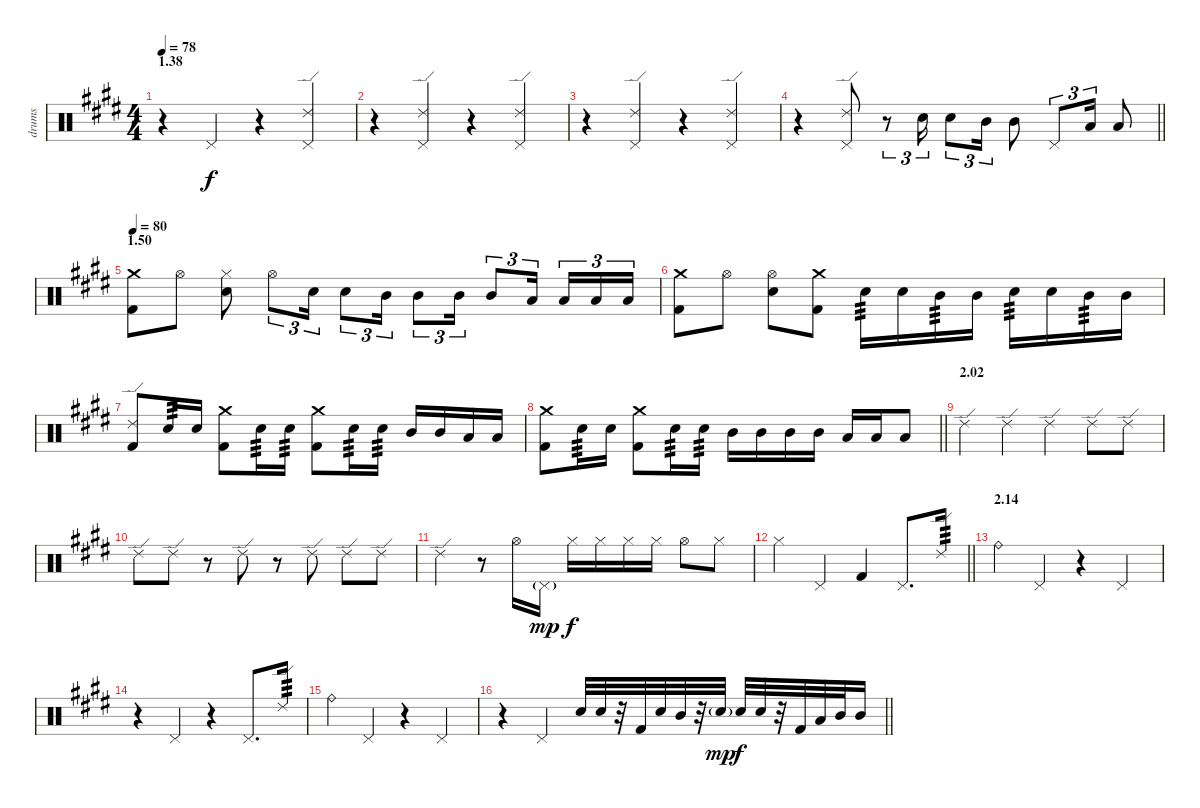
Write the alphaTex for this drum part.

\track ("drums" "drums") {instrument percussion}
\staff {score}
\articulation defaults
\ts (4 4)
\section ("" "1.38")
\tempo 78
\clef neutral
\ks e
r.4{dy f} "Pedal Hi-Hat (hit)".4 r.4 ("Pedal Hi-Hat (hit)" "Ride (edge) 2").4 |
r.4 ("Pedal Hi-Hat (hit)" "Ride (edge) 2").4 r.4 ("Pedal Hi-Hat (hit)" "Ride (edge) 2").4 |
r.4 ("Pedal Hi-Hat (hit)" "Ride (edge) 2").4 r.4 ("Pedal Hi-Hat (hit)" "Ride (edge) 2").4 |
\barLineRight lightlight
r.4 ("Pedal Hi-Hat (hit)" "Ride (edge) 2").8 r.8{tu (3 2)} "Electric Snare (hit)".16{tu (3 2)} "Electric Snare (hit)".8{tu (3 2)} "Mid Tom (hit)".16{tu (3 2)} "Mid Tom (hit)".8 "Pedal Hi-Hat (hit)".8{tu (3 2)} "Low Tom (hit)".16{tu (3 2)} "Low Tom (hit)".8 |
\section ("" "1.50")
\tempo 80
("Crash medium (hit)" "Kick (hit) 2").8 "Hi-Hat (open)".8 ("Hi-Hat (closed)" "Electric Snare (hit)").8 "Hi-Hat (open)".8{tu (3 2)} "Electric Snare (hit)".16{tu (3 2)} "Electric Snare (hit)".8{tu (3 2)} "Mid Tom (hit)".16{tu (3 2)} "Mid Tom (hit)".8{tu (3 2)} "Mid Tom (hit)".16{tu (3 2)} "Mid Tom (hit)".8{tu (3 2)} "Low Tom (hit)".16{tu (3 2) beam splitsecondary} "Low Tom (hit)".16{tu (3 2)} "Low Tom (hit)".16{tu (3 2)} "Low Tom (hit)".16{tu (3 2)} |
("Crash medium (hit)" "Kick (hit) 2").8 "Hi-Hat (open)".8 ("Hi-Hat (open)" "Electric Snare (hit)").8 ("Crash medium (hit)" "Kick (hit) 2").8 "Electric Snare (hit)".16{tp 3} "Electric Snare (hit)".16 "Mid Tom (hit)".16{tp 3} "Mid Tom (hit)".16 "Electric Snare (hit)".16{tp 3} "Electric Snare (hit)".16 "Mid Tom (hit)".16{tp 3} "Mid Tom (hit)".16 |
("Ride (edge) 2" "Kick (hit) 2").8 "Electric Snare (hit)".16{tp 3} "Electric Snare (hit)".16 ("Crash medium (hit)" "Kick (hit) 2").8 "Electric Snare (hit)".16{tp 3} "Electric Snare (hit)".16{tp 3} ("Crash medium (hit)" "Kick (hit) 2").8 "Electric Snare (hit)".16{tp 3} "Electric Snare (hit)".16{tp 3} "Mid Tom (hit)".16 "Mid Tom (hit)".16 "Low Tom (hit)".16 "Low Tom (hit)".16 |
\barLineRight lightlight
("Crash medium (hit)" "Kick (hit) 2").8 "Electric Snare (hit)".16{tp 3} "Electric Snare (hit)".16 ("Crash medium (hit)" "Kick (hit) 2").8 "Electric Snare (hit)".16{tp 3} "Electric Snare (hit)".16{tp 3} "Mid Tom (hit)".16 "Mid Tom (hit)".16 "Mid Tom (hit)".16 "Mid Tom (hit)".16 "Low Tom (hit)".16 "Low Tom (hit)".16 "Low Tom (hit)".8 |
\section ("" "2.02")
"Ride (edge) 2".4 "Ride (edge) 2".4 "Ride (edge) 2".4 "Ride (edge) 2".8 "Ride (edge) 2".8 |
"Ride (edge) 2".8 "Ride (edge) 2".8 r.8 "Ride (edge) 2".8 r.8 "Ride (edge) 2".8 "Ride (edge) 2".8 "Ride (edge) 2".8 |
"Ride (edge) 2".4 r.8 "Hi-Hat (open)".16 "Pedal Hi-Hat (hit)"{g}.16{dy mp} "Hi-Hat (closed)".16{dy f} "Hi-Hat (closed)".16 "Hi-Hat (closed)".16 "Hi-Hat (closed)".16 "Hi-Hat (open)".8 "Hi-Hat (closed)".8 |
\barLineRight lightlight "Hi-Hat (closed)".4 "Pedal Hi-Hat (hit)".4 "Kick (hit) 2".4 "Pedal Hi-Hat (hit)".8{d} "Ride (edge) 2".16{tp 3}
|
\section ("" "2.14")
"Ride (bell)".4 "Pedal Hi-Hat (hit)".4 r.4 "Pedal Hi-Hat (hit)".4 |
r.4 "Pedal Hi-Hat (hit)".4 r.4 "Pedal Hi-Hat (hit)".8{d} "Ride (edge) 2".16{tp 3} |
"Ride (bell)".4 "Pedal Hi-Hat (hit)".4 r.4 "Pedal Hi-Hat (hit)".4 |
\barLineRight lightlight
r.4 "Pedal Hi-Hat (hit)".4 "Electric Snare (hit)".32 "Electric Snare (hit)".32 r.32 "Kick (hit) 2".32 "Electric Snare (hit)".32 "Mid Tom (hit)".32 r.32 "Electric Snare (hit)"{g}.32{dy mp} "Electric Snare (hit)".32{dy f} "Electric Snare (hit)".32 r.32 "Kick (hit) 2".32 "Low Tom (hit)".32 "Mid Tom (hit)".32 "Mid Tom (hit)".16
